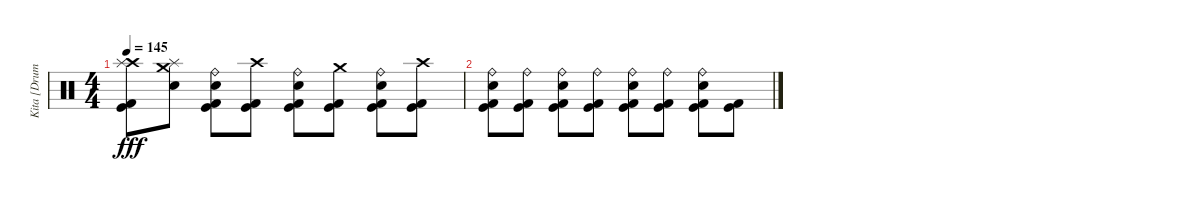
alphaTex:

\track ("Kita [Drums]" "Kita [Drum") {instrument percussion}
\staff {score}
\articulation defaults
\ts (4 4)
\tempo 145
\clef neutral
\ks c
("Crash high (hit)" "Splash (hit)" "Kick (hit)" "Kick (hit) 2").8{dy fff} ("Crash medium (hit)" "Splash (hit)" "Electric Snare (hit)").8 ("Ride (bell)" "Electric Snare (hit)" "Kick (hit)" "Kick (hit) 2").8 ("Crash high (hit)" "Kick (hit)" "Kick (hit) 2").8 ("Ride (bell)" "Electric Snare (hit)" "Kick (hit)" "Kick (hit) 2").8 ("Crash medium (hit)" "Kick (hit)" "Kick (hit) 2").8 ("Ride (bell)" "Electric Snare (hit)" "Kick (hit)" "Kick (hit) 2").8 ("Crash high (hit)" "Kick (hit)" "Kick (hit) 2").8 |
("Ride (bell)" "Electric Snare (hit)" "Kick (hit)" "Kick (hit) 2").8 ("Ride (bell)" "Kick (hit)" "Kick (hit) 2").8 ("Ride (bell)" "Electric Snare (hit)" "Kick (hit)" "Kick (hit) 2").8 ("Ride (bell)" "Kick (hit)" "Kick (hit) 2").8 ("Ride (bell)" "Electric Snare (hit)" "Kick (hit)" "Kick (hit) 2").8 ("Ride (bell)" "Kick (hit)" "Kick (hit) 2").8 ("Ride (bell)" "Electric Snare (hit)" "Kick (hit)" "Kick (hit) 2").8 ("Kick (hit)" "Kick (hit) 2").8
